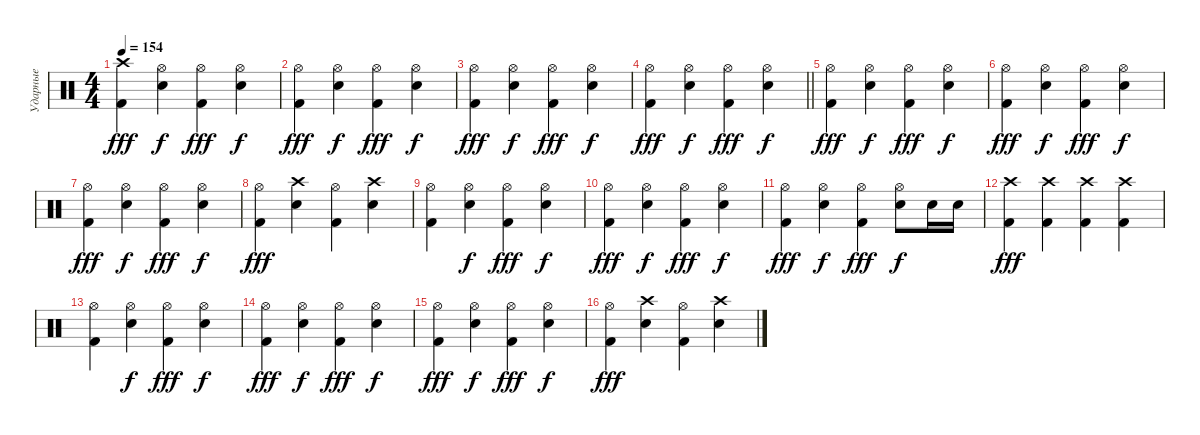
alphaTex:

\track ("Ударные" "Ударные") {instrument percussion}
\staff
\articulation defaults
\ts (4 4)
\tempo 154
\clef neutral
\ks c
("Kick (hit) 2" "Crash high (hit)").4{dy fff} ("Snare (hit) 2" "Hi-Hat (open)").4{dy f} ("Kick (hit) 2" "Hi-Hat (open)").4{dy fff} ("Snare (hit) 2" "Hi-Hat (open)").4{dy f} |
("Kick (hit) 2" "Hi-Hat (open)").4{dy fff} ("Snare (hit) 2" "Hi-Hat (open)").4{dy f} ("Kick (hit) 2" "Hi-Hat (open)").4{dy fff} ("Snare (hit) 2" "Hi-Hat (open)").4{dy f} |
("Kick (hit) 2" "Hi-Hat (open)").4{dy fff} ("Snare (hit) 2" "Hi-Hat (open)").4{dy f} ("Kick (hit) 2" "Hi-Hat (open)").4{dy fff} ("Snare (hit) 2" "Hi-Hat (open)").4{dy f} |
\barLineRight lightlight
("Kick (hit) 2" "Hi-Hat (open)").4{dy fff} ("Snare (hit) 2" "Hi-Hat (open)").4{dy f} ("Kick (hit) 2" "Hi-Hat (open)").4{dy fff} ("Snare (hit) 2" "Hi-Hat (open)").4{dy f} |
("Kick (hit) 2" "Hi-Hat (open)").4{dy fff} ("Snare (hit) 2" "Hi-Hat (open)").4{dy f} ("Kick (hit) 2" "Hi-Hat (open)").4{dy fff} ("Snare (hit) 2" "Hi-Hat (open)").4{dy f} |
("Kick (hit) 2" "Hi-Hat (open)").4{dy fff} ("Snare (hit) 2" "Hi-Hat (open)").4{dy f} ("Kick (hit) 2" "Hi-Hat (open)").4{dy fff} ("Snare (hit) 2" "Hi-Hat (open)").4{dy f} |
("Kick (hit) 2" "Hi-Hat (open)").4{dy fff} ("Snare (hit) 2" "Hi-Hat (open)").4{dy f} ("Kick (hit) 2" "Hi-Hat (open)").4{dy fff} ("Snare (hit) 2" "Hi-Hat (open)").4{dy f} |
("Kick (hit) 2" "Hi-Hat (open)").4{dy fff} ("Snare (hit) 2" "Crash high (hit)").4 ("Kick (hit) 2" "Hi-Hat (open)").4 ("Snare (hit) 2" "Crash high (hit)").4 |
("Kick (hit) 2" "Hi-Hat (open)").4 ("Snare (hit) 2" "Hi-Hat (open)").4{dy f} ("Kick (hit) 2" "Hi-Hat (open)").4{dy fff} ("Snare (hit) 2" "Hi-Hat (open)").4{dy f} |
("Kick (hit) 2" "Hi-Hat (open)").4{dy fff} ("Snare (hit) 2" "Hi-Hat (open)").4{dy f} ("Kick (hit) 2" "Hi-Hat (open)").4{dy fff} ("Snare (hit) 2" "Hi-Hat (open)").4{dy f} |
("Kick (hit) 2" "Hi-Hat (open)").4{dy fff} ("Snare (hit) 2" "Hi-Hat (open)").4{dy f} ("Kick (hit) 2" "Hi-Hat (open)").4{dy fff} ("Snare (hit) 2" "Hi-Hat (open)").8{dy f} "Snare (hit) 2".16 "Snare (hit) 2".16 |
("Kick (hit) 2" "Crash high (hit)").4{dy fff} ("Kick (hit) 2" "Crash high (hit)").4 ("Kick (hit) 2" "Crash high (hit)").4 ("Kick (hit) 2" "Crash high (hit)").4 |
("Kick (hit) 2" "Hi-Hat (open)").4 ("Snare (hit) 2" "Hi-Hat (open)").4{dy f} ("Kick (hit) 2" "Hi-Hat (open)").4{dy fff} ("Snare (hit) 2" "Hi-Hat (open)").4{dy f} |
("Kick (hit) 2" "Hi-Hat (open)").4{dy fff} ("Snare (hit) 2" "Hi-Hat (open)").4{dy f} ("Kick (hit) 2" "Hi-Hat (open)").4{dy fff} ("Snare (hit) 2" "Hi-Hat (open)").4{dy f} |
("Kick (hit) 2" "Hi-Hat (open)").4{dy fff} ("Snare (hit) 2" "Hi-Hat (open)").4{dy f} ("Kick (hit) 2" "Hi-Hat (open)").4{dy fff} ("Snare (hit) 2" "Hi-Hat (open)").4{dy f} |
("Kick (hit) 2" "Hi-Hat (open)").4{dy fff} ("Snare (hit) 2" "Crash high (hit)").4 ("Kick (hit) 2" "Hi-Hat (open)").4 ("Snare (hit) 2" "Crash high (hit)").4
